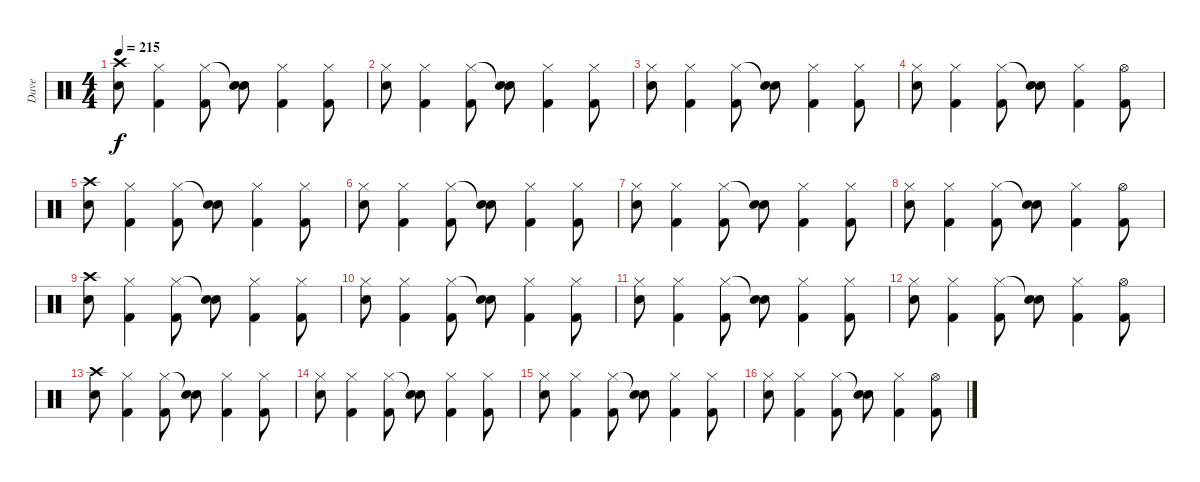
\track ("Dave" "Dave") {instrument percussion}
\staff {score}
\articulation defaults
\ts (4 4)
\tempo 215
\clef neutral
\ks c
("Crash high (hit)" "Electric Snare (hit)").8{dy f} ("Hi-Hat (closed)" "Kick (hit) 2").4 ("Hi-Hat (closed)" "Kick (hit) 2").8 ("Snare (hit)"{t} "Electric Snare (hit)").8 ("Hi-Hat (closed)" "Kick (hit) 2").4 ("Hi-Hat (closed)" "Kick (hit) 2").8 |
("Hi-Hat (closed)" "Electric Snare (hit)").8 ("Hi-Hat (closed)" "Kick (hit) 2").4 ("Hi-Hat (closed)" "Kick (hit) 2").8 ("Snare (hit)"{t} "Electric Snare (hit)").8 ("Hi-Hat (closed)" "Kick (hit) 2").4 ("Hi-Hat (closed)" "Kick (hit) 2").8 |
("Hi-Hat (closed)" "Electric Snare (hit)").8 ("Hi-Hat (closed)" "Kick (hit) 2").4 ("Hi-Hat (closed)" "Kick (hit) 2").8 ("Snare (hit)"{t} "Electric Snare (hit)").8 ("Hi-Hat (closed)" "Kick (hit) 2").4 ("Hi-Hat (closed)" "Kick (hit) 2").8 |
("Hi-Hat (closed)" "Electric Snare (hit)").8 ("Hi-Hat (closed)" "Kick (hit) 2").4 ("Hi-Hat (closed)" "Kick (hit) 2").8 ("Snare (hit)"{t} "Electric Snare (hit)").8 ("Hi-Hat (closed)" "Kick (hit) 2").4 ("Hi-Hat (open)" "Kick (hit) 2").8 |
("Crash high (hit)" "Electric Snare (hit)").8 ("Hi-Hat (closed)" "Kick (hit) 2").4 ("Hi-Hat (closed)" "Kick (hit) 2").8 ("Snare (hit)"{t} "Electric Snare (hit)").8 ("Hi-Hat (closed)" "Kick (hit) 2").4 ("Hi-Hat (closed)" "Kick (hit) 2").8 |
("Hi-Hat (closed)" "Electric Snare (hit)").8 ("Hi-Hat (closed)" "Kick (hit) 2").4 ("Hi-Hat (closed)" "Kick (hit) 2").8 ("Snare (hit)"{t} "Electric Snare (hit)").8 ("Hi-Hat (closed)" "Kick (hit) 2").4 ("Hi-Hat (closed)" "Kick (hit) 2").8 |
("Hi-Hat (closed)" "Electric Snare (hit)").8 ("Hi-Hat (closed)" "Kick (hit) 2").4 ("Hi-Hat (closed)" "Kick (hit) 2").8 ("Snare (hit)"{t} "Electric Snare (hit)").8 ("Hi-Hat (closed)" "Kick (hit) 2").4 ("Hi-Hat (closed)" "Kick (hit) 2").8 |
("Hi-Hat (closed)" "Electric Snare (hit)").8 ("Hi-Hat (closed)" "Kick (hit) 2").4 ("Hi-Hat (closed)" "Kick (hit) 2").8 ("Snare (hit)"{t} "Electric Snare (hit)").8 ("Hi-Hat (closed)" "Kick (hit) 2").4 ("Hi-Hat (open)" "Kick (hit) 2").8 |
("Crash high (hit)" "Electric Snare (hit)").8 ("Hi-Hat (closed)" "Kick (hit) 2").4 ("Hi-Hat (closed)" "Kick (hit) 2").8 ("Snare (hit)"{t} "Electric Snare (hit)").8 ("Hi-Hat (closed)" "Kick (hit) 2").4 ("Hi-Hat (closed)" "Kick (hit) 2").8 |
("Hi-Hat (closed)" "Electric Snare (hit)").8 ("Hi-Hat (closed)" "Kick (hit) 2").4 ("Hi-Hat (closed)" "Kick (hit) 2").8 ("Snare (hit)"{t} "Electric Snare (hit)").8 ("Hi-Hat (closed)" "Kick (hit) 2").4 ("Hi-Hat (closed)" "Kick (hit) 2").8 |
("Hi-Hat (closed)" "Electric Snare (hit)").8 ("Hi-Hat (closed)" "Kick (hit) 2").4 ("Hi-Hat (closed)" "Kick (hit) 2").8 ("Snare (hit)"{t} "Electric Snare (hit)").8 ("Hi-Hat (closed)" "Kick (hit) 2").4 ("Hi-Hat (closed)" "Kick (hit) 2").8 |
("Hi-Hat (closed)" "Electric Snare (hit)").8 ("Hi-Hat (closed)" "Kick (hit) 2").4 ("Hi-Hat (closed)" "Kick (hit) 2").8 ("Snare (hit)"{t} "Electric Snare (hit)").8 ("Hi-Hat (closed)" "Kick (hit) 2").4 ("Hi-Hat (open)" "Kick (hit) 2").8 |
("Crash high (hit)" "Electric Snare (hit)").8 ("Hi-Hat (closed)" "Kick (hit) 2").4 ("Hi-Hat (closed)" "Kick (hit) 2").8 ("Snare (hit)"{t} "Electric Snare (hit)").8 ("Hi-Hat (closed)" "Kick (hit) 2").4 ("Hi-Hat (closed)" "Kick (hit) 2").8 |
("Hi-Hat (closed)" "Electric Snare (hit)").8 ("Hi-Hat (closed)" "Kick (hit) 2").4 ("Hi-Hat (closed)" "Kick (hit) 2").8 ("Snare (hit)"{t} "Electric Snare (hit)").8 ("Hi-Hat (closed)" "Kick (hit) 2").4 ("Hi-Hat (closed)" "Kick (hit) 2").8 |
("Hi-Hat (closed)" "Electric Snare (hit)").8 ("Hi-Hat (closed)" "Kick (hit) 2").4 ("Hi-Hat (closed)" "Kick (hit) 2").8 ("Snare (hit)"{t} "Electric Snare (hit)").8 ("Hi-Hat (closed)" "Kick (hit) 2").4 ("Hi-Hat (closed)" "Kick (hit) 2").8 |
("Hi-Hat (closed)" "Electric Snare (hit)").8 ("Hi-Hat (closed)" "Kick (hit) 2").4 ("Hi-Hat (closed)" "Kick (hit) 2").8 ("Snare (hit)"{t} "Electric Snare (hit)").8 ("Hi-Hat (closed)" "Kick (hit) 2").4 ("Hi-Hat (open)" "Kick (hit) 2").8
